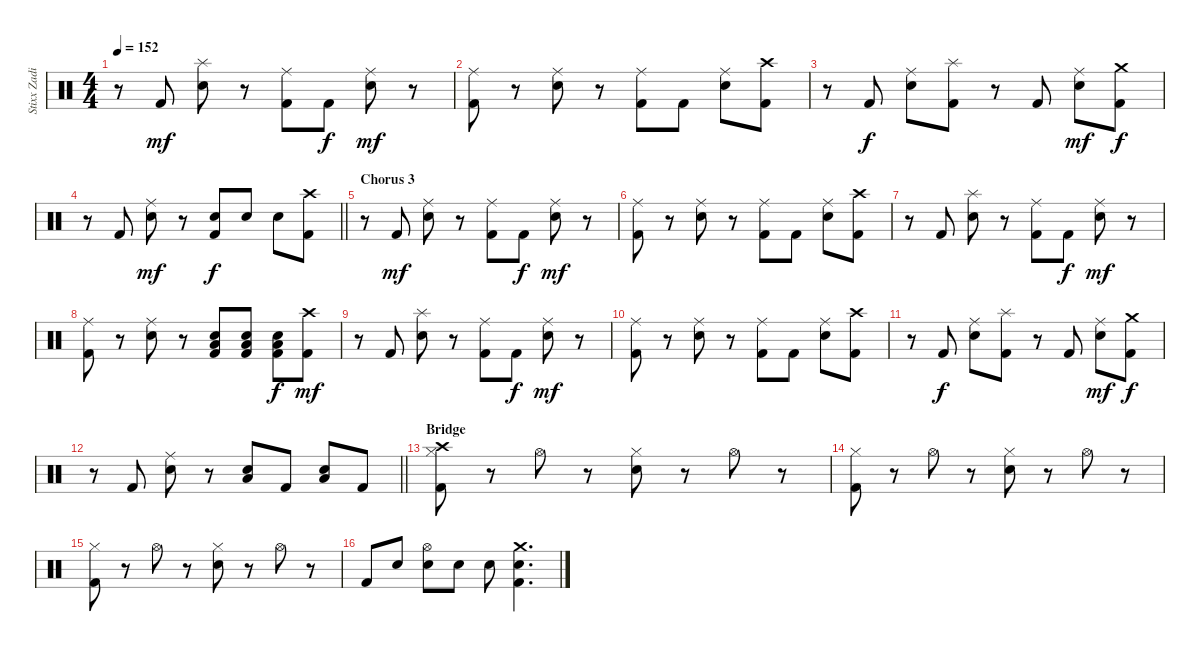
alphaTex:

\track ("Stixx Zadinia (Drums)" "Stixx Zadi") {instrument percussion}
\staff {score}
\articulation defaults
\ts (4 4)
\tempo 152
\clef neutral
\ks c
r.8{dy mf} "Kick (hit) 2".8 ("Splash (hit)" "Snare (hit) 2").8 r.8 ("Ride (middle)" "Kick (hit) 2").8 "Kick (hit) 2".8{dy f} ("Ride (middle)" "Snare (hit) 2").8{dy mf} r.8 |
("Ride (middle)" "Kick (hit) 2").8 r.8 ("Ride (middle)" "Snare (hit) 2").8 r.8 ("Ride (middle)" "Kick (hit) 2").8 "Kick (hit) 2".8 ("Ride (middle)" "Snare (hit) 2").8 ("Crash high (hit)" "Kick (hit) 2").8 |
r.8 "Kick (hit) 2".8{dy f} ("Ride (middle)" "Snare (hit) 2").8 ("Splash (hit)" "Kick (hit) 2").8 r.8 "Kick (hit) 2".8 ("Ride (middle)" "Snare (hit) 2").8{dy mf} ("Crash medium (hit)" "Kick (hit) 2").8{dy f} |
\barLineRight lightlight
r.8 "Kick (hit) 2".8 ("Ride (middle)" "Snare (hit) 2").8{dy mf} r.8 ("Snare (hit) 2" "Kick (hit) 2").8{dy f} "Snare (hit) 2".8 "Snare (hit) 2".8 ("Crash high (hit)" "Kick (hit) 2").8 |
\section ("" "Chorus 3")
r.8 "Kick (hit) 2".8{dy mf} ("Ride (middle)" "Snare (hit) 2").8 r.8 ("Ride (middle)" "Kick (hit) 2").8 "Kick (hit) 2".8{dy f} ("Ride (middle)" "Snare (hit) 2").8{dy mf} r.8 |
("Ride (middle)" "Kick (hit) 2").8 r.8 ("Ride (middle)" "Snare (hit) 2").8 r.8 ("Ride (middle)" "Kick (hit) 2").8 "Kick (hit) 2".8 ("Ride (middle)" "Snare (hit) 2").8 ("Crash high (hit)" "Kick (hit) 2").8 |
r.8 "Kick (hit) 2".8 ("Splash (hit)" "Snare (hit) 2").8 r.8 ("Ride (middle)" "Kick (hit) 2").8 "Kick (hit) 2".8{dy f} ("Ride (middle)" "Snare (hit) 2").8{dy mf} r.8 |
("Ride (middle)" "Kick (hit) 2").8 r.8 ("Ride (middle)" "Snare (hit) 2").8 r.8 ("Low Floor Tom (hit)" "Snare (hit) 2" "Kick (hit) 2").8 ("Low Floor Tom (hit)" "Snare (hit) 2" "Kick (hit) 2").8 ("Low Floor Tom (hit)" "Snare (hit) 2" "Kick (hit) 2").8{dy f} ("Crash high (hit)" "Kick (hit) 2").8{dy mf} |
r.8 "Kick (hit) 2".8 ("Splash (hit)" "Snare (hit) 2").8 r.8 ("Ride (middle)" "Kick (hit) 2").8 "Kick (hit) 2".8{dy f} ("Ride (middle)" "Snare (hit) 2").8{dy mf} r.8 |
("Ride (middle)" "Kick (hit) 2").8 r.8 ("Ride (middle)" "Snare (hit) 2").8 r.8 ("Ride (middle)" "Kick (hit) 2").8 "Kick (hit) 2".8 ("Ride (middle)" "Snare (hit) 2").8 ("Crash high (hit)" "Kick (hit) 2").8 |
r.8 "Kick (hit) 2".8{dy f} ("Ride (middle)" "Snare (hit) 2").8 ("Splash (hit)" "Kick (hit) 2").8 r.8 "Kick (hit) 2".8 ("Ride (middle)" "Snare (hit) 2").8{dy mf} ("Crash medium (hit)" "Kick (hit) 2").8{dy f} |
\barLineRight lightlight
r.8 "Kick (hit) 2".8 ("Ride (middle)" "Snare (hit) 2").8 r.8 ("Low Floor Tom (hit)" "Snare (hit) 2").8 "Kick (hit) 2".8 ("Low Floor Tom (hit)" "Snare (hit) 2").8 "Kick (hit) 2".8 |
\section ("" "Bridge")
("Crash high (hit)" "Hi-Hat (closed)" "Kick (hit) 2").8 r.8 "Hi-Hat (open)".8 r.8 ("Hi-Hat (closed)" "Snare (hit) 2").8 r.8 "Hi-Hat (open)".8 r.8 |
("Hi-Hat (closed)" "Kick (hit) 2").8 r.8 "Hi-Hat (open)".8 r.8 ("Hi-Hat (closed)" "Snare (hit) 2").8 r.8 "Hi-Hat (open)".8 r.8 |
("Hi-Hat (closed)" "Kick (hit) 2").8 r.8 "Hi-Hat (open)".8 r.8 ("Hi-Hat (closed)" "Snare (hit) 2").8 r.8 "Hi-Hat (open)".8 r.8 |
"Kick (hit) 2".8 "Snare (hit) 2".8 ("Hi-Hat (open)" "Snare (hit) 2").8 "Snare (hit) 2".8 "Snare (hit) 2".8 ("Crash medium (hit)" "Snare (hit) 2" "Kick (hit) 2").4{d}
